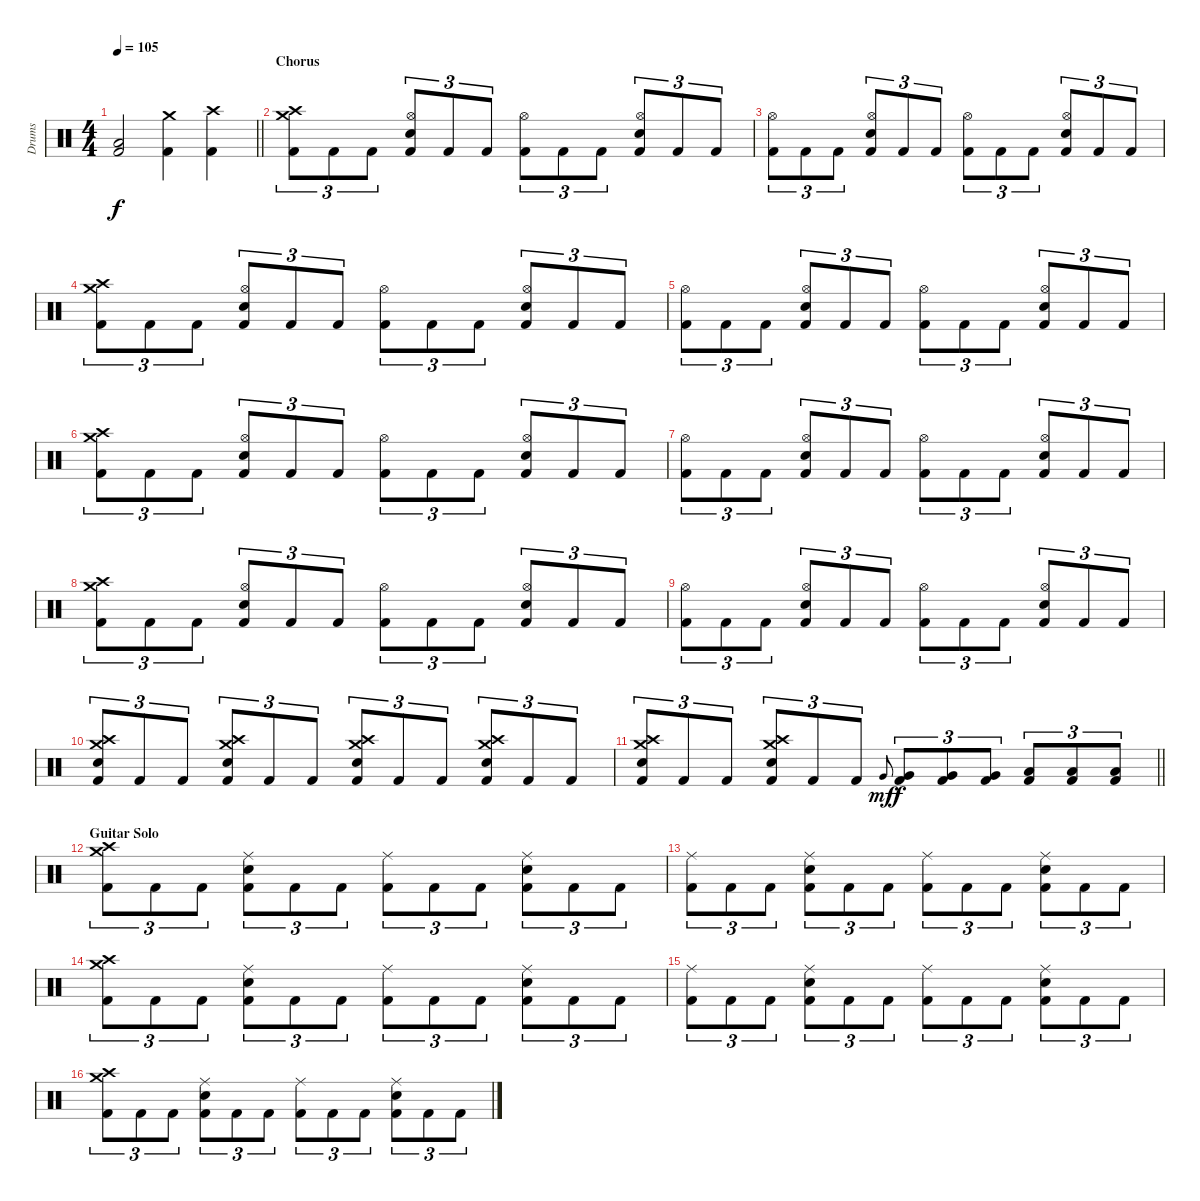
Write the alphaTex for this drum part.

\track ("Drums" "Drums") {instrument percussion}
\staff {score}
\articulation defaults
\ts (4 4)
\tempo 105
\clef neutral
\barLineRight lightlight
\ks c
("Low Floor Tom (hit)" "Kick (hit) 2").2{dy f} ("Crash medium (hit)" "Kick (hit) 2").4 ("Crash high (hit)" "Kick (hit) 2").4 |
\section ("" "Chorus")
("Crash high (hit)" "Crash medium (hit)" "Kick (hit) 2").8{tu (3 2)} "Kick (hit) 2".8{tu (3 2)} "Kick (hit) 2".8{tu (3 2)} ("Hi-Hat (open)" "Electric Snare (hit)" "Kick (hit) 2").8{tu (3 2)} "Kick (hit) 2".8{tu (3 2)} "Kick (hit) 2".8{tu (3 2)} ("Hi-Hat (open)" "Kick (hit) 2").8{tu (3 2)} "Kick (hit) 2".8{tu (3 2)} "Kick (hit) 2".8{tu (3 2)} ("Hi-Hat (open)" "Electric Snare (hit)" "Kick (hit) 2").8{tu (3 2)} "Kick (hit) 2".8{tu (3 2)} "Kick (hit) 2".8{tu (3 2)} |
("Hi-Hat (open)" "Kick (hit) 2").8{tu (3 2)} "Kick (hit) 2".8{tu (3 2)} "Kick (hit) 2".8{tu (3 2)} ("Hi-Hat (open)" "Electric Snare (hit)" "Kick (hit) 2").8{tu (3 2)} "Kick (hit) 2".8{tu (3 2)} "Kick (hit) 2".8{tu (3 2)} ("Hi-Hat (open)" "Kick (hit) 2").8{tu (3 2)} "Kick (hit) 2".8{tu (3 2)} "Kick (hit) 2".8{tu (3 2)} ("Hi-Hat (open)" "Electric Snare (hit)" "Kick (hit) 2").8{tu (3 2)} "Kick (hit) 2".8{tu (3 2)} "Kick (hit) 2".8{tu (3 2)} |
("Crash high (hit)" "Crash medium (hit)" "Kick (hit) 2").8{tu (3 2)} "Kick (hit) 2".8{tu (3 2)} "Kick (hit) 2".8{tu (3 2)} ("Hi-Hat (open)" "Electric Snare (hit)" "Kick (hit) 2").8{tu (3 2)} "Kick (hit) 2".8{tu (3 2)} "Kick (hit) 2".8{tu (3 2)} ("Hi-Hat (open)" "Kick (hit) 2").8{tu (3 2)} "Kick (hit) 2".8{tu (3 2)} "Kick (hit) 2".8{tu (3 2)} ("Hi-Hat (open)" "Electric Snare (hit)" "Kick (hit) 2").8{tu (3 2)} "Kick (hit) 2".8{tu (3 2)} "Kick (hit) 2".8{tu (3 2)} |
("Hi-Hat (open)" "Kick (hit) 2").8{tu (3 2)} "Kick (hit) 2".8{tu (3 2)} "Kick (hit) 2".8{tu (3 2)} ("Hi-Hat (open)" "Electric Snare (hit)" "Kick (hit) 2").8{tu (3 2)} "Kick (hit) 2".8{tu (3 2)} "Kick (hit) 2".8{tu (3 2)} ("Hi-Hat (open)" "Kick (hit) 2").8{tu (3 2)} "Kick (hit) 2".8{tu (3 2)} "Kick (hit) 2".8{tu (3 2)} ("Hi-Hat (open)" "Electric Snare (hit)" "Kick (hit) 2").8{tu (3 2)} "Kick (hit) 2".8{tu (3 2)} "Kick (hit) 2".8{tu (3 2)} |
("Crash high (hit)" "Crash medium (hit)" "Kick (hit) 2").8{tu (3 2)} "Kick (hit) 2".8{tu (3 2)} "Kick (hit) 2".8{tu (3 2)} ("Hi-Hat (open)" "Electric Snare (hit)" "Kick (hit) 2").8{tu (3 2)} "Kick (hit) 2".8{tu (3 2)} "Kick (hit) 2".8{tu (3 2)} ("Hi-Hat (open)" "Kick (hit) 2").8{tu (3 2)} "Kick (hit) 2".8{tu (3 2)} "Kick (hit) 2".8{tu (3 2)} ("Hi-Hat (open)" "Electric Snare (hit)" "Kick (hit) 2").8{tu (3 2)} "Kick (hit) 2".8{tu (3 2)} "Kick (hit) 2".8{tu (3 2)} |
("Hi-Hat (open)" "Kick (hit) 2").8{tu (3 2)} "Kick (hit) 2".8{tu (3 2)} "Kick (hit) 2".8{tu (3 2)} ("Hi-Hat (open)" "Electric Snare (hit)" "Kick (hit) 2").8{tu (3 2)} "Kick (hit) 2".8{tu (3 2)} "Kick (hit) 2".8{tu (3 2)} ("Hi-Hat (open)" "Kick (hit) 2").8{tu (3 2)} "Kick (hit) 2".8{tu (3 2)} "Kick (hit) 2".8{tu (3 2)} ("Hi-Hat (open)" "Electric Snare (hit)" "Kick (hit) 2").8{tu (3 2)} "Kick (hit) 2".8{tu (3 2)} "Kick (hit) 2".8{tu (3 2)} |
("Crash high (hit)" "Crash medium (hit)" "Kick (hit) 2").8{tu (3 2)} "Kick (hit) 2".8{tu (3 2)} "Kick (hit) 2".8{tu (3 2)} ("Hi-Hat (open)" "Electric Snare (hit)" "Kick (hit) 2").8{tu (3 2)} "Kick (hit) 2".8{tu (3 2)} "Kick (hit) 2".8{tu (3 2)} ("Hi-Hat (open)" "Kick (hit) 2").8{tu (3 2)} "Kick (hit) 2".8{tu (3 2)} "Kick (hit) 2".8{tu (3 2)} ("Hi-Hat (open)" "Electric Snare (hit)" "Kick (hit) 2").8{tu (3 2)} "Kick (hit) 2".8{tu (3 2)} "Kick (hit) 2".8{tu (3 2)} |
("Hi-Hat (open)" "Kick (hit) 2").8{tu (3 2)} "Kick (hit) 2".8{tu (3 2)} "Kick (hit) 2".8{tu (3 2)} ("Hi-Hat (open)" "Electric Snare (hit)" "Kick (hit) 2").8{tu (3 2)} "Kick (hit) 2".8{tu (3 2)} "Kick (hit) 2".8{tu (3 2)} ("Hi-Hat (open)" "Kick (hit) 2").8{tu (3 2)} "Kick (hit) 2".8{tu (3 2)} "Kick (hit) 2".8{tu (3 2)} ("Hi-Hat (open)" "Electric Snare (hit)" "Kick (hit) 2").8{tu (3 2)} "Kick (hit) 2".8{tu (3 2)} "Kick (hit) 2".8{tu (3 2)} |
("Crash medium (hit)" "Crash high (hit)" "Electric Snare (hit)" "Kick (hit) 2").8{tu (3 2)} "Kick (hit) 2".8{tu (3 2)} "Kick (hit) 2".8{tu (3 2)} ("Crash high (hit)" "Crash medium (hit)" "Electric Snare (hit)" "Kick (hit) 2").8{tu (3 2)} "Kick (hit) 2".8{tu (3 2)} "Kick (hit) 2".8{tu (3 2)} ("Crash medium (hit)" "Crash high (hit)" "Electric Snare (hit)" "Kick (hit) 2").8{tu (3 2)} "Kick (hit) 2".8{tu (3 2)} "Kick (hit) 2".8{tu (3 2)} ("Crash high (hit)" "Crash medium (hit)" "Electric Snare (hit)" "Kick (hit) 2").8{tu (3 2)} "Kick (hit) 2".8{tu (3 2)} "Kick (hit) 2".8{tu (3 2)} |
\barLineRight lightlight
("Crash medium (hit)" "Crash high (hit)" "Electric Snare (hit)" "Kick (hit) 2").8{tu (3 2)} "Kick (hit) 2".8{tu (3 2)} "Kick (hit) 2".8{tu (3 2)} ("Crash high (hit)" "Crash medium (hit)" "Electric Snare (hit)" "Kick (hit) 2").8{tu (3 2)} "Kick (hit) 2".8{tu (3 2)} "Kick (hit) 2".8{tu (3 2)} "Very Low Tom (hit)".8{gr onbeat dy mf} ("Very Low Tom (hit)" "Kick (hit) 2").8{tu (3 2) dy f} ("Very Low Tom (hit)" "Kick (hit) 2").8{tu (3 2)} ("Very Low Tom (hit)" "Kick (hit) 2").8{tu (3 2)} ("Low Floor Tom (hit)" "Kick (hit) 2").8{tu (3 2)} ("Low Floor Tom (hit)" "Kick (hit) 2").8{tu (3 2)} ("Low Floor Tom (hit)" "Kick (hit) 2").8{tu (3 2)} |
\section ("" "Guitar Solo")
("Crash medium (hit)" "Crash high (hit)" "Kick (hit) 2").8{tu (3 2)} "Kick (hit) 2".8{tu (3 2)} "Kick (hit) 2".8{tu (3 2)} ("Ride (middle)" "Electric Snare (hit)" "Kick (hit) 2").8{tu (3 2)} "Kick (hit) 2".8{tu (3 2)} "Kick (hit) 2".8{tu (3 2)} ("Ride (middle)" "Kick (hit) 2").8{tu (3 2)} "Kick (hit) 2".8{tu (3 2)} "Kick (hit) 2".8{tu (3 2)} ("Ride (middle)" "Electric Snare (hit)" "Kick (hit) 2").8{tu (3 2)} "Kick (hit) 2".8{tu (3 2)} "Kick (hit) 2".8{tu (3 2)} |
("Ride (middle)" "Kick (hit) 2").8{tu (3 2)} "Kick (hit) 2".8{tu (3 2)} "Kick (hit) 2".8{tu (3 2)} ("Ride (middle)" "Electric Snare (hit)" "Kick (hit) 2").8{tu (3 2)} "Kick (hit) 2".8{tu (3 2)} "Kick (hit) 2".8{tu (3 2)} ("Ride (middle)" "Kick (hit) 2").8{tu (3 2)} "Kick (hit) 2".8{tu (3 2)} "Kick (hit) 2".8{tu (3 2)} ("Ride (middle)" "Electric Snare (hit)" "Kick (hit) 2").8{tu (3 2)} "Kick (hit) 2".8{tu (3 2)} "Kick (hit) 2".8{tu (3 2)} |
("Crash medium (hit)" "Crash high (hit)" "Kick (hit) 2").8{tu (3 2)} "Kick (hit) 2".8{tu (3 2)} "Kick (hit) 2".8{tu (3 2)} ("Ride (middle)" "Electric Snare (hit)" "Kick (hit) 2").8{tu (3 2)} "Kick (hit) 2".8{tu (3 2)} "Kick (hit) 2".8{tu (3 2)} ("Ride (middle)" "Kick (hit) 2").8{tu (3 2)} "Kick (hit) 2".8{tu (3 2)} "Kick (hit) 2".8{tu (3 2)} ("Ride (middle)" "Electric Snare (hit)" "Kick (hit) 2").8{tu (3 2)} "Kick (hit) 2".8{tu (3 2)} "Kick (hit) 2".8{tu (3 2)} |
("Ride (middle)" "Kick (hit) 2").8{tu (3 2)} "Kick (hit) 2".8{tu (3 2)} "Kick (hit) 2".8{tu (3 2)} ("Ride (middle)" "Electric Snare (hit)" "Kick (hit) 2").8{tu (3 2)} "Kick (hit) 2".8{tu (3 2)} "Kick (hit) 2".8{tu (3 2)} ("Ride (middle)" "Kick (hit) 2").8{tu (3 2)} "Kick (hit) 2".8{tu (3 2)} "Kick (hit) 2".8{tu (3 2)} ("Ride (middle)" "Electric Snare (hit)" "Kick (hit) 2").8{tu (3 2)} "Kick (hit) 2".8{tu (3 2)} "Kick (hit) 2".8{tu (3 2)} |
("Crash medium (hit)" "Crash high (hit)" "Kick (hit) 2").8{tu (3 2)} "Kick (hit) 2".8{tu (3 2)} "Kick (hit) 2".8{tu (3 2)} ("Ride (middle)" "Electric Snare (hit)" "Kick (hit) 2").8{tu (3 2)} "Kick (hit) 2".8{tu (3 2)} "Kick (hit) 2".8{tu (3 2)} ("Ride (middle)" "Kick (hit) 2").8{tu (3 2)} "Kick (hit) 2".8{tu (3 2)} "Kick (hit) 2".8{tu (3 2)} ("Ride (middle)" "Electric Snare (hit)" "Kick (hit) 2").8{tu (3 2)} "Kick (hit) 2".8{tu (3 2)} "Kick (hit) 2".8{tu (3 2)}
